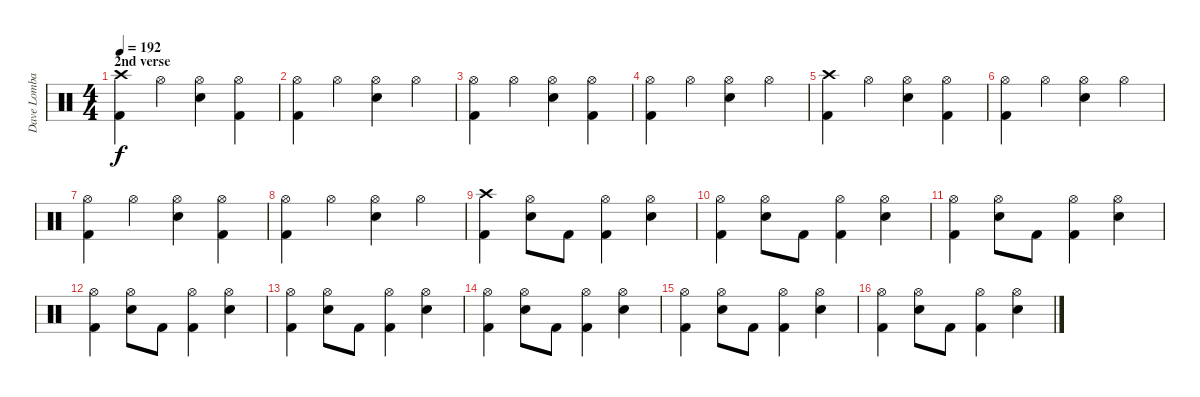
\track ("Dave Lombardo" "Dave Lomba") {instrument percussion}
\staff {score}
\articulation defaults
\ts (4 4)
\section ("" "2nd verse")
\tempo 192
\clef neutral
\ks c
("Crash high (hit)" "Kick (hit) 2").4{dy f} "Hi-Hat (open)".4 ("Hi-Hat (open)" "Electric Snare (hit)").4 ("Hi-Hat (open)" "Kick (hit) 2").4 |
("Hi-Hat (open)" "Kick (hit) 2").4 "Hi-Hat (open)".4 ("Hi-Hat (open)" "Electric Snare (hit)").4 "Hi-Hat (open)".4 |
("Hi-Hat (open)" "Kick (hit) 2").4 "Hi-Hat (open)".4 ("Hi-Hat (open)" "Electric Snare (hit)").4 ("Hi-Hat (open)" "Kick (hit) 2").4 |
("Hi-Hat (open)" "Kick (hit) 2").4 "Hi-Hat (open)".4 ("Hi-Hat (open)" "Electric Snare (hit)").4 "Hi-Hat (open)".4 |
("Crash high (hit)" "Kick (hit) 2").4 "Hi-Hat (open)".4 ("Hi-Hat (open)" "Electric Snare (hit)").4 ("Hi-Hat (open)" "Kick (hit) 2").4 |
("Hi-Hat (open)" "Kick (hit) 2").4 "Hi-Hat (open)".4 ("Hi-Hat (open)" "Electric Snare (hit)").4 "Hi-Hat (open)".4 |
("Hi-Hat (open)" "Kick (hit) 2").4 "Hi-Hat (open)".4 ("Hi-Hat (open)" "Electric Snare (hit)").4 ("Hi-Hat (open)" "Kick (hit) 2").4 |
("Hi-Hat (open)" "Kick (hit) 2").4 "Hi-Hat (open)".4 ("Hi-Hat (open)" "Electric Snare (hit)").4 "Hi-Hat (open)".4 |
("Crash high (hit)" "Kick (hit) 2").4 ("Hi-Hat (open)" "Electric Snare (hit)").8 "Kick (hit) 2".8 ("Hi-Hat (open)" "Kick (hit) 2").4 ("Hi-Hat (open)" "Electric Snare (hit)").4 |
("Hi-Hat (open)" "Kick (hit) 2").4 ("Hi-Hat (open)" "Electric Snare (hit)").8 "Kick (hit) 2".8 ("Hi-Hat (open)" "Kick (hit) 2").4 ("Hi-Hat (open)" "Electric Snare (hit)").4 |
("Hi-Hat (open)" "Kick (hit) 2").4 ("Hi-Hat (open)" "Electric Snare (hit)").8 "Kick (hit) 2".8 ("Hi-Hat (open)" "Kick (hit) 2").4 ("Hi-Hat (open)" "Electric Snare (hit)").4 |
("Hi-Hat (open)" "Kick (hit) 2").4 ("Hi-Hat (open)" "Electric Snare (hit)").8 "Kick (hit) 2".8 ("Hi-Hat (open)" "Kick (hit) 2").4 ("Hi-Hat (open)" "Electric Snare (hit)").4 |
("Hi-Hat (open)" "Kick (hit) 2").4 ("Hi-Hat (open)" "Electric Snare (hit)").8 "Kick (hit) 2".8 ("Hi-Hat (open)" "Kick (hit) 2").4 ("Hi-Hat (open)" "Electric Snare (hit)").4 |
("Hi-Hat (open)" "Kick (hit) 2").4 ("Hi-Hat (open)" "Electric Snare (hit)").8 "Kick (hit) 2".8 ("Hi-Hat (open)" "Kick (hit) 2").4 ("Hi-Hat (open)" "Electric Snare (hit)").4 |
("Hi-Hat (open)" "Kick (hit) 2").4 ("Hi-Hat (open)" "Electric Snare (hit)").8 "Kick (hit) 2".8 ("Hi-Hat (open)" "Kick (hit) 2").4 ("Hi-Hat (open)" "Electric Snare (hit)").4 |
("Hi-Hat (open)" "Kick (hit) 2").4 ("Hi-Hat (open)" "Electric Snare (hit)").8 "Kick (hit) 2".8 ("Hi-Hat (open)" "Kick (hit) 2").4 ("Hi-Hat (open)" "Electric Snare (hit)").4
